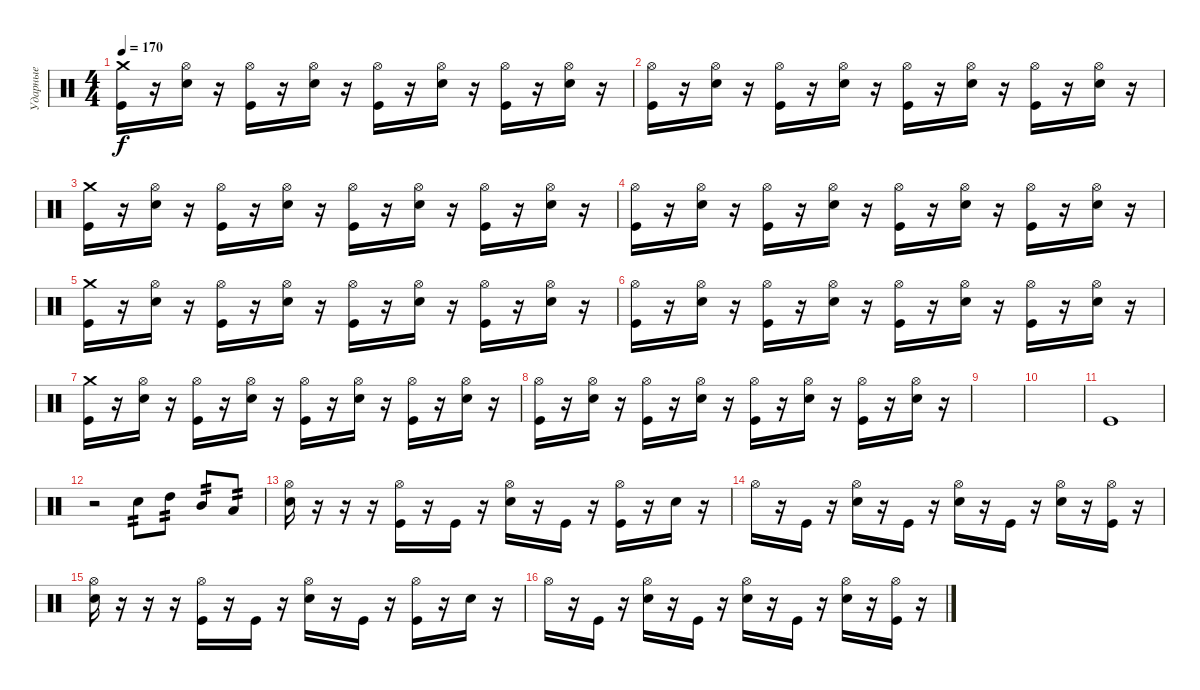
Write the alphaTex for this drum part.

\track ("Ударные" "Ударные") {instrument percussion}
\staff {score}
\articulation defaults
\ts (4 4)
\tempo 170
\clef neutral
\ks c
("Crash medium (hit)" "Kick (hit)").16{dy f} r.16 ("Hi-Hat (open)" "Electric Snare (hit)").16 r.16 ("Hi-Hat (open)" "Kick (hit)").16 r.16 ("Hi-Hat (open)" "Electric Snare (hit)").16 r.16 ("Hi-Hat (open)" "Kick (hit)").16 r.16 ("Hi-Hat (open)" "Electric Snare (hit)").16 r.16 ("Hi-Hat (open)" "Kick (hit)").16 r.16 ("Hi-Hat (open)" "Electric Snare (hit)").16 r.16 |
("Hi-Hat (open)" "Kick (hit)").16 r.16 ("Hi-Hat (open)" "Electric Snare (hit)").16 r.16 ("Hi-Hat (open)" "Kick (hit)").16 r.16 ("Hi-Hat (open)" "Electric Snare (hit)").16 r.16 ("Hi-Hat (open)" "Kick (hit)").16 r.16 ("Hi-Hat (open)" "Electric Snare (hit)").16 r.16 ("Hi-Hat (open)" "Kick (hit)").16 r.16 ("Hi-Hat (open)" "Electric Snare (hit)").16 r.16 |
("Crash medium (hit)" "Kick (hit)").16 r.16 ("Hi-Hat (open)" "Electric Snare (hit)").16 r.16 ("Hi-Hat (open)" "Kick (hit)").16 r.16 ("Hi-Hat (open)" "Electric Snare (hit)").16 r.16 ("Hi-Hat (open)" "Kick (hit)").16 r.16 ("Hi-Hat (open)" "Electric Snare (hit)").16 r.16 ("Hi-Hat (open)" "Kick (hit)").16 r.16 ("Hi-Hat (open)" "Electric Snare (hit)").16 r.16 |
("Hi-Hat (open)" "Kick (hit)").16 r.16 ("Hi-Hat (open)" "Electric Snare (hit)").16 r.16 ("Hi-Hat (open)" "Kick (hit)").16 r.16 ("Hi-Hat (open)" "Electric Snare (hit)").16 r.16 ("Hi-Hat (open)" "Kick (hit)").16 r.16 ("Hi-Hat (open)" "Electric Snare (hit)").16 r.16 ("Hi-Hat (open)" "Kick (hit)").16 r.16 ("Hi-Hat (open)" "Electric Snare (hit)").16 r.16 |
("Crash medium (hit)" "Kick (hit)").16 r.16 ("Hi-Hat (open)" "Electric Snare (hit)").16 r.16 ("Hi-Hat (open)" "Kick (hit)").16 r.16 ("Hi-Hat (open)" "Electric Snare (hit)").16 r.16 ("Hi-Hat (open)" "Kick (hit)").16 r.16 ("Hi-Hat (open)" "Electric Snare (hit)").16 r.16 ("Hi-Hat (open)" "Kick (hit)").16 r.16 ("Hi-Hat (open)" "Electric Snare (hit)").16 r.16 |
("Hi-Hat (open)" "Kick (hit)").16 r.16 ("Hi-Hat (open)" "Electric Snare (hit)").16 r.16 ("Hi-Hat (open)" "Kick (hit)").16 r.16 ("Hi-Hat (open)" "Electric Snare (hit)").16 r.16 ("Hi-Hat (open)" "Kick (hit)").16 r.16 ("Hi-Hat (open)" "Electric Snare (hit)").16 r.16 ("Hi-Hat (open)" "Kick (hit)").16 r.16 ("Hi-Hat (open)" "Electric Snare (hit)").16 r.16 |
("Crash medium (hit)" "Kick (hit)").16 r.16 ("Hi-Hat (open)" "Electric Snare (hit)").16 r.16 ("Hi-Hat (open)" "Kick (hit)").16 r.16 ("Hi-Hat (open)" "Electric Snare (hit)").16 r.16 ("Hi-Hat (open)" "Kick (hit)").16 r.16 ("Hi-Hat (open)" "Electric Snare (hit)").16 r.16 ("Hi-Hat (open)" "Kick (hit)").16 r.16 ("Hi-Hat (open)" "Electric Snare (hit)").16 r.16 |
("Hi-Hat (open)" "Kick (hit)").16 r.16 ("Hi-Hat (open)" "Electric Snare (hit)").16 r.16 ("Hi-Hat (open)" "Kick (hit)").16 r.16 ("Hi-Hat (open)" "Electric Snare (hit)").16 r.16 ("Hi-Hat (open)" "Kick (hit)").16 r.16 ("Hi-Hat (open)" "Electric Snare (hit)").16 r.16 ("Hi-Hat (open)" "Kick (hit)").16 r.16 ("Hi-Hat (open)" "Electric Snare (hit)").16 r.16 |
|
|
"Kick (hit)".1 |
r.2 "Electric Snare (hit)".8{tp 2} "High Tom (hit)".8{tp 2} "Mid Tom (hit)".8{tp 2} "Low Tom (hit)".8{tp 2} |
("Hi-Hat (open)" "Electric Snare (hit)").16 r.16 r.16 r.16 ("Hi-Hat (open)" "Kick (hit)").16 r.16 "Kick (hit)".16 r.16 ("Hi-Hat (open)" "Electric Snare (hit)").16 r.16 "Kick (hit)".16 r.16 ("Hi-Hat (open)" "Kick (hit)").16 r.16 "Electric Snare (hit)".16 r.16 |
"Hi-Hat (open)".16 r.16 "Kick (hit)".16 r.16 ("Hi-Hat (open)" "Electric Snare (hit)").16 r.16 "Kick (hit)".16 r.16 ("Hi-Hat (open)" "Electric Snare (hit)").16 r.16 "Kick (hit)".16 r.16 ("Hi-Hat (open)" "Electric Snare (hit)").16 r.16 ("Hi-Hat (open)" "Kick (hit)").16 r.16 |
("Hi-Hat (open)" "Electric Snare (hit)").16 r.16 r.16 r.16 ("Hi-Hat (open)" "Kick (hit)").16 r.16 "Kick (hit)".16 r.16 ("Hi-Hat (open)" "Electric Snare (hit)").16 r.16 "Kick (hit)".16 r.16 ("Hi-Hat (open)" "Kick (hit)").16 r.16 "Electric Snare (hit)".16 r.16 |
"Hi-Hat (open)".16 r.16 "Kick (hit)".16 r.16 ("Hi-Hat (open)" "Electric Snare (hit)").16 r.16 "Kick (hit)".16 r.16 ("Hi-Hat (open)" "Electric Snare (hit)").16 r.16 "Kick (hit)".16 r.16 ("Hi-Hat (open)" "Electric Snare (hit)").16 r.16 ("Hi-Hat (open)" "Kick (hit)").16 r.16
